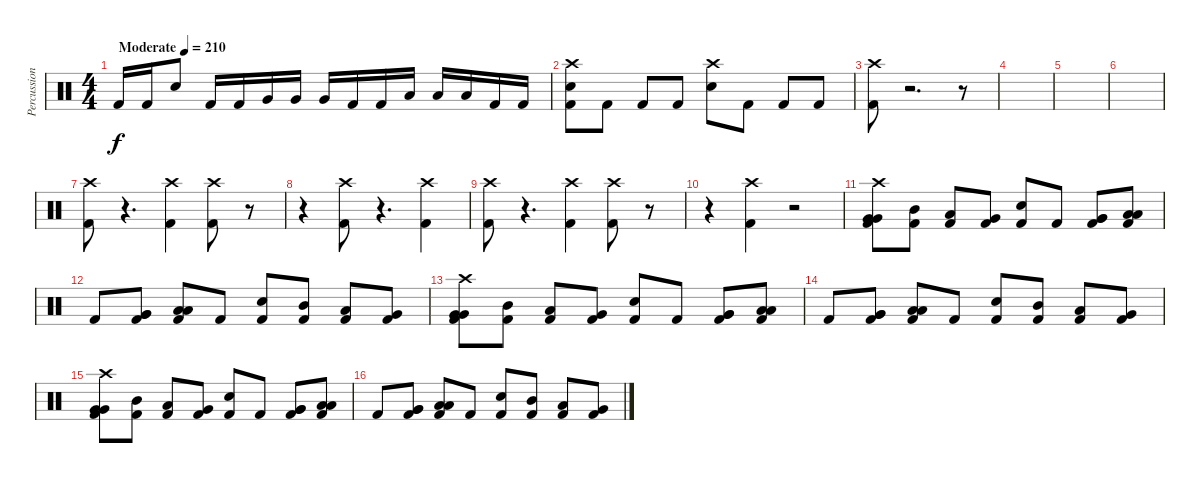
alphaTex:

\track ("Percussion" "Percussion") {instrument percussion}
\staff {score}
\articulation defaults
\ts (4 4)
\tempo (210 "Moderate")
\clef neutral
\ks c "Kick (hit) 2".16{dy f} "Kick (hit) 2".16 "Electric Snare (hit)".8 "Kick (hit) 2".16 "Kick (hit) 2".16 "Very Low Tom (hit)".16 "Very Low Tom (hit)".16 "Very Low Tom (hit)".16 "Kick (hit) 2".16 "Kick (hit) 2".16 "Low Floor Tom (hit)".16 "Low Floor Tom (hit)".16 "Low Floor Tom (hit)".16 "Kick (hit) 2".16 "Kick (hit) 2".16
|
("Crash high (hit)" "Electric Snare (hit)" "Kick (hit) 2").8 "Kick (hit) 2".8 "Kick (hit) 2".8 "Kick (hit) 2".8 ("Crash high (hit)" "Electric Snare (hit)").8 "Kick (hit) 2".8 "Kick (hit) 2".8 "Kick (hit) 2".8 |
("Crash high (hit)" "Kick (hit) 2").8 r.2{d} r.8 |
|
|
|
("Crash high (hit)" "Kick (hit) 2").8 r.4{d} ("Crash high (hit)" "Kick (hit) 2").4 ("Crash high (hit)" "Kick (hit) 2").8 r.8 |
r.4 ("Crash high (hit)" "Kick (hit) 2").8 r.4{d} ("Crash high (hit)" "Kick (hit) 2").4 |
("Crash high (hit)" "Kick (hit) 2").8 r.4{d} ("Crash high (hit)" "Kick (hit) 2").4 ("Crash high (hit)" "Kick (hit) 2").8 r.8 |
r.4 ("Crash high (hit)" "Kick (hit) 2").4 r.2 |
("Crash high (hit)" "Very Low Tom (hit)" "Very Low Tom (hit)" "Kick (hit) 2").8 ("Mid Tom (hit)" "Kick (hit) 2").8 ("Low Tom (hit)" "Kick (hit) 2").8 ("Very Low Tom (hit)" "Kick (hit) 2").8 ("Electric Snare (hit)" "Kick (hit) 2").8 "Kick (hit) 2".8 ("Very Low Tom (hit)" "Very Low Tom (hit)" "Kick (hit) 2").8 ("Low Floor Tom (hit)" "Low Floor Tom (hit)" "Kick (hit) 2").8 |
"Kick (hit) 2".8 ("Very Low Tom (hit)" "Very Low Tom (hit)" "Kick (hit) 2").8 ("Low Floor Tom (hit)" "Low Floor Tom (hit)" "Kick (hit) 2").8 "Kick (hit) 2".8 ("Electric Snare (hit)" "Kick (hit) 2").8 ("Mid Tom (hit)" "Kick (hit) 2").8 ("Low Tom (hit)" "Kick (hit) 2").8 ("Very Low Tom (hit)" "Kick (hit) 2").8 |
("Crash high (hit)" "Very Low Tom (hit)" "Very Low Tom (hit)" "Kick (hit) 2").8 ("Mid Tom (hit)" "Kick (hit) 2").8 ("Low Tom (hit)" "Kick (hit) 2").8 ("Very Low Tom (hit)" "Kick (hit) 2").8 ("Electric Snare (hit)" "Kick (hit) 2").8 "Kick (hit) 2".8 ("Very Low Tom (hit)" "Very Low Tom (hit)" "Kick (hit) 2").8 ("Low Floor Tom (hit)" "Low Floor Tom (hit)" "Kick (hit) 2").8 |
"Kick (hit) 2".8 ("Very Low Tom (hit)" "Very Low Tom (hit)" "Kick (hit) 2").8 ("Low Floor Tom (hit)" "Low Floor Tom (hit)" "Kick (hit) 2").8 "Kick (hit) 2".8 ("Electric Snare (hit)" "Kick (hit) 2").8 ("Mid Tom (hit)" "Kick (hit) 2").8 ("Low Tom (hit)" "Kick (hit) 2").8 ("Very Low Tom (hit)" "Kick (hit) 2").8 |
("Crash high (hit)" "Very Low Tom (hit)" "Very Low Tom (hit)" "Kick (hit) 2").8 ("Mid Tom (hit)" "Kick (hit) 2").8 ("Low Tom (hit)" "Kick (hit) 2").8 ("Very Low Tom (hit)" "Kick (hit) 2").8 ("Electric Snare (hit)" "Kick (hit) 2").8 "Kick (hit) 2".8 ("Very Low Tom (hit)" "Very Low Tom (hit)" "Kick (hit) 2").8 ("Low Floor Tom (hit)" "Low Floor Tom (hit)" "Kick (hit) 2").8 |
"Kick (hit) 2".8 ("Very Low Tom (hit)" "Very Low Tom (hit)" "Kick (hit) 2").8 ("Low Floor Tom (hit)" "Low Floor Tom (hit)" "Kick (hit) 2").8 "Kick (hit) 2".8 ("Electric Snare (hit)" "Kick (hit) 2").8 ("Mid Tom (hit)" "Kick (hit) 2").8 ("Low Tom (hit)" "Kick (hit) 2").8 ("Very Low Tom (hit)" "Kick (hit) 2").8
